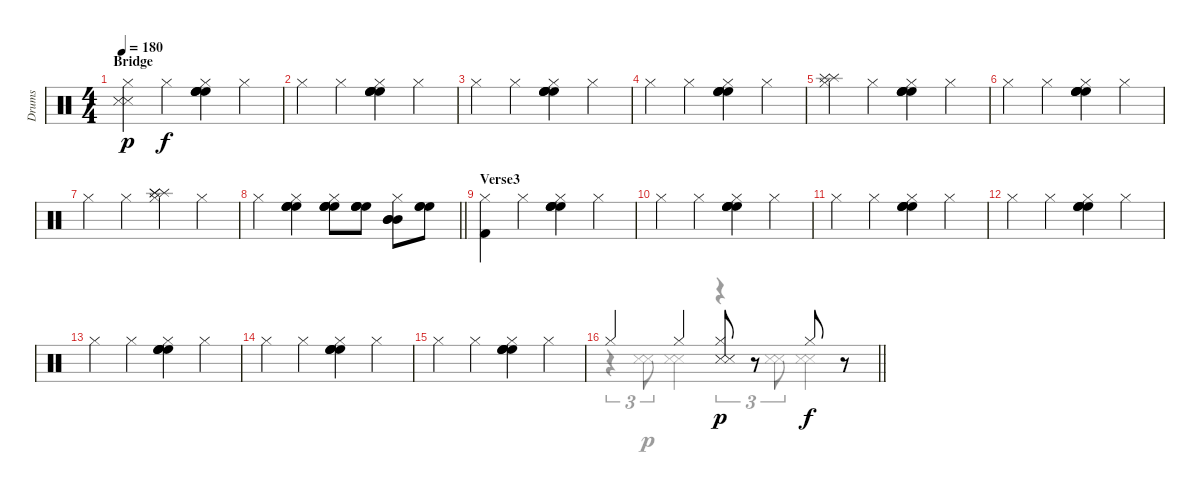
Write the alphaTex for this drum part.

\track ("Drums" "Drums") {instrument percussion}
\staff {score}
\articulation defaults
\voice
\ts (4 4)
\section ("" "Bridge")
\tempo 180
\clef neutral
\ks c
("Snare (side stick) 3" "Snare (side stick) 3" "Hi-Hat (closed)").4{dy p} "Hi-Hat (closed)".4{dy f} ("High Floor Tom (hit)" "High Floor Tom (hit)" "High Floor Tom (hit)" "High Floor Tom (hit)" "Hi-Hat (closed)").4 "Hi-Hat (closed)".4 |
"Hi-Hat (closed)".4 "Hi-Hat (closed)".4 ("High Floor Tom (hit)" "High Floor Tom (hit)" "High Floor Tom (hit)" "High Floor Tom (hit)" "Hi-Hat (closed)").4 "Hi-Hat (closed)".4 |
"Hi-Hat (closed)".4 "Hi-Hat (closed)".4 ("High Floor Tom (hit)" "High Floor Tom (hit)" "High Floor Tom (hit)" "High Floor Tom (hit)" "Hi-Hat (closed)").4 "Hi-Hat (closed)".4 |
"Hi-Hat (closed)".4 "Hi-Hat (closed)".4 ("High Floor Tom (hit)" "High Floor Tom (hit)" "High Floor Tom (hit)" "High Floor Tom (hit)" "Hi-Hat (closed)").4 "Hi-Hat (closed)".4 |
("Splash (hit)" "Splash (hit)" "Hi-Hat (closed)").4 "Hi-Hat (closed)".4 ("High Floor Tom (hit)" "High Floor Tom (hit)" "High Floor Tom (hit)" "High Floor Tom (hit)" "Hi-Hat (closed)").4 "Hi-Hat (closed)".4 |
"Hi-Hat (closed)".4 "Hi-Hat (closed)".4 ("High Floor Tom (hit)" "High Floor Tom (hit)" "High Floor Tom (hit)" "High Floor Tom (hit)" "Hi-Hat (closed)").4 "Hi-Hat (closed)".4 |
"Hi-Hat (closed)".4 "Hi-Hat (closed)".4 ("Splash (hit)" "Splash (hit)" "Splash (hit)" "Hi-Hat (closed)").4 "Hi-Hat (closed)".4 |
\barLineRight lightlight "Hi-Hat (closed)".4
("High Floor Tom (hit)" "High Floor Tom (hit)" "High Floor Tom (hit)" "High Floor Tom (hit)" "Hi-Hat (closed)").4 ("High Floor Tom (hit)" "High Floor Tom (hit)" "High Floor Tom (hit)" "High Floor Tom (hit)" "Hi-Hat (closed)").8 ("High Floor Tom (hit)" "High Floor Tom (hit)" "High Floor Tom (hit)" "High Floor Tom (hit)").8 ("Mid Tom (hit)" "Mid Tom (hit)" "Mid Tom (hit)" "Hi-Hat (closed)").8 ("High Floor Tom (hit)" "High Floor Tom (hit)" "High Floor Tom (hit)").8 |
\section ("" "Verse3")
("Kick (hit) 2" "Hi-Hat (closed)").4 "Hi-Hat (closed)".4 ("High Floor Tom (hit)" "High Floor Tom (hit)" "High Floor Tom (hit)" "High Floor Tom (hit)" "Hi-Hat (closed)").4 "Hi-Hat (closed)".4 |
"Hi-Hat (closed)".4 "Hi-Hat (closed)".4 ("High Floor Tom (hit)" "High Floor Tom (hit)" "High Floor Tom (hit)" "High Floor Tom (hit)" "Hi-Hat (closed)").4 "Hi-Hat (closed)".4 |
"Hi-Hat (closed)".4 "Hi-Hat (closed)".4 ("High Floor Tom (hit)" "High Floor Tom (hit)" "High Floor Tom (hit)" "High Floor Tom (hit)" "Hi-Hat (closed)").4 "Hi-Hat (closed)".4 |
"Hi-Hat (closed)".4 "Hi-Hat (closed)".4 ("High Floor Tom (hit)" "High Floor Tom (hit)" "High Floor Tom (hit)" "High Floor Tom (hit)" "Hi-Hat (closed)").4 "Hi-Hat (closed)".4 |
"Hi-Hat (closed)".4 "Hi-Hat (closed)".4 ("High Floor Tom (hit)" "High Floor Tom (hit)" "High Floor Tom (hit)" "High Floor Tom (hit)" "Hi-Hat (closed)").4 "Hi-Hat (closed)".4 |
"Hi-Hat (closed)".4 "Hi-Hat (closed)".4 ("High Floor Tom (hit)" "High Floor Tom (hit)" "High Floor Tom (hit)" "High Floor Tom (hit)" "Hi-Hat (closed)").4 "Hi-Hat (closed)".4 |
"Hi-Hat (closed)".4 "Hi-Hat (closed)".4 ("High Floor Tom (hit)" "High Floor Tom (hit)" "High Floor Tom (hit)" "High Floor Tom (hit)" "Hi-Hat (closed)").4 "Hi-Hat (closed)".4 |
\barLineRight lightlight "Hi-Hat (closed)".4 "Hi-Hat (closed)".4
("Snare (side stick) 3" "Snare (side stick) 3" "Hi-Hat (closed)").8{dy p} r.8 "Hi-Hat (closed)".8{dy f} r.8
\voice
\clef neutral
\ottava regular
\simile none
\ks c
|
|
|
|
|
|
|
\barLineRight lightlight
|
|
|
|
|
|
|
|
\barLineRight lightlight
r.4{tu (3 2)} ("Snare (side stick) 3" "Snare (side stick) 3").8{tu (3 2) dy p} ("Snare (side stick) 3" "Snare (side stick) 3").4 r.4{tu (3 2)} ("Snare (side stick) 3" "Snare (side stick) 3").8{tu (3 2)} ("Snare (side stick) 3" "Snare (side stick) 3").4
